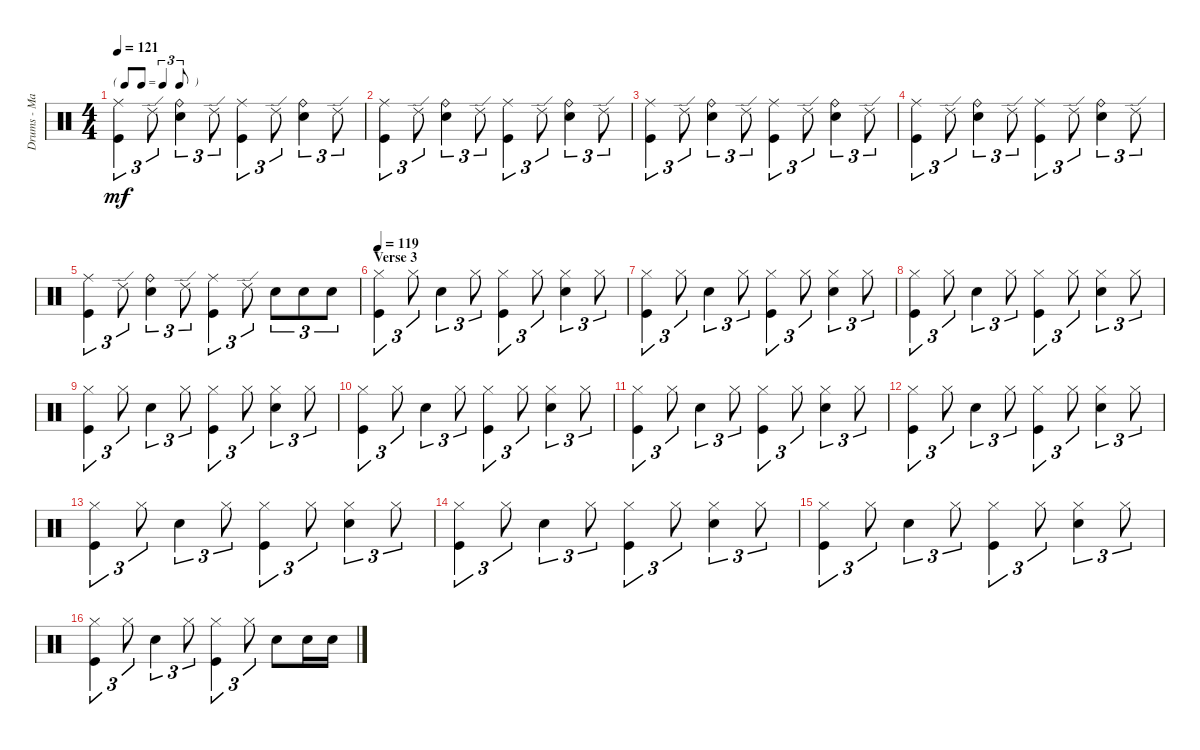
\track ("Drums - Mason" "Drums - Ma") {instrument percussion}
\staff {score}
\articulation defaults
\ts (4 4)
\tf triplet8th
\tempo 121
\clef neutral
\ks c
("Ride (middle)" "Kick (hit)").4{tu (3 2) dy mf} "Ride (edge) 2".8{tu (3 2)} ("Ride (bell)" "Snare (hit) 2").4{tu (3 2)} "Ride (edge) 2".8{tu (3 2)} ("Ride (middle)" "Kick (hit)").4{tu (3 2)} "Ride (edge) 2".8{tu (3 2)} ("Ride (bell)" "Snare (hit) 2").4{tu (3 2)} "Ride (edge) 2".8{tu (3 2)} |
("Ride (middle)" "Kick (hit)").4{tu (3 2)} "Ride (edge) 2".8{tu (3 2)} ("Ride (bell)" "Snare (hit) 2").4{tu (3 2)} "Ride (edge) 2".8{tu (3 2)} ("Ride (middle)" "Kick (hit)").4{tu (3 2)} "Ride (edge) 2".8{tu (3 2)} ("Ride (bell)" "Snare (hit) 2").4{tu (3 2)} "Ride (edge) 2".8{tu (3 2)} |
("Ride (middle)" "Kick (hit)").4{tu (3 2)} "Ride (edge) 2".8{tu (3 2)} ("Ride (bell)" "Snare (hit) 2").4{tu (3 2)} "Ride (edge) 2".8{tu (3 2)} ("Ride (middle)" "Kick (hit)").4{tu (3 2)} "Ride (edge) 2".8{tu (3 2)} ("Ride (bell)" "Snare (hit) 2").4{tu (3 2)} "Ride (edge) 2".8{tu (3 2)} |
("Ride (middle)" "Kick (hit)").4{tu (3 2)} "Ride (edge) 2".8{tu (3 2)} ("Ride (bell)" "Snare (hit) 2").4{tu (3 2)} "Ride (edge) 2".8{tu (3 2)} ("Ride (middle)" "Kick (hit)").4{tu (3 2)} "Ride (edge) 2".8{tu (3 2)} ("Ride (bell)" "Snare (hit) 2").4{tu (3 2)} "Ride (edge) 2".8{tu (3 2)} |
("Ride (middle)" "Kick (hit)").4{tu (3 2)} "Ride (edge) 2".8{tu (3 2)} ("Ride (bell)" "Snare (hit) 2").4{tu (3 2)} "Ride (edge) 2".8{tu (3 2)} ("Ride (middle)" "Kick (hit)").4{tu (3 2)} "Ride (edge) 2".8{tu (3 2)} "Snare (hit) 2".8{tu (3 2)} "Snare (hit) 2".8{tu (3 2)} "Snare (hit) 2".8{tu (3 2)} |
\section ("" "Verse 3")
\tempo 119
("Hi-Hat (closed)" "Kick (hit)").4{tu (3 2)} "Hi-Hat (closed)".8{tu (3 2)} "Snare (hit) 2".4{tu (3 2)} "Hi-Hat (closed)".8{tu (3 2)} ("Hi-Hat (closed)" "Kick (hit)").4{tu (3 2)} "Hi-Hat (closed)".8{tu (3 2)} ("Hi-Hat (closed)" "Snare (hit) 2").4{tu (3 2)} "Hi-Hat (closed)".8{tu (3 2)} |
("Hi-Hat (closed)" "Kick (hit)").4{tu (3 2)} "Hi-Hat (closed)".8{tu (3 2)} "Snare (hit) 2".4{tu (3 2)} "Hi-Hat (closed)".8{tu (3 2)} ("Hi-Hat (closed)" "Kick (hit)").4{tu (3 2)} "Hi-Hat (closed)".8{tu (3 2)} ("Hi-Hat (closed)" "Snare (hit) 2").4{tu (3 2)} "Hi-Hat (closed)".8{tu (3 2)} |
("Hi-Hat (closed)" "Kick (hit)").4{tu (3 2)} "Hi-Hat (closed)".8{tu (3 2)} "Snare (hit) 2".4{tu (3 2)} "Hi-Hat (closed)".8{tu (3 2)} ("Hi-Hat (closed)" "Kick (hit)").4{tu (3 2)} "Hi-Hat (closed)".8{tu (3 2)} ("Hi-Hat (closed)" "Snare (hit) 2").4{tu (3 2)} "Hi-Hat (closed)".8{tu (3 2)} |
("Hi-Hat (closed)" "Kick (hit)").4{tu (3 2)} "Hi-Hat (closed)".8{tu (3 2)} "Snare (hit) 2".4{tu (3 2)} "Hi-Hat (closed)".8{tu (3 2)} ("Hi-Hat (closed)" "Kick (hit)").4{tu (3 2)} "Hi-Hat (closed)".8{tu (3 2)} ("Hi-Hat (closed)" "Snare (hit) 2").4{tu (3 2)} "Hi-Hat (closed)".8{tu (3 2)} |
("Hi-Hat (closed)" "Kick (hit)").4{tu (3 2)} "Hi-Hat (closed)".8{tu (3 2)} "Snare (hit) 2".4{tu (3 2)} "Hi-Hat (closed)".8{tu (3 2)} ("Hi-Hat (closed)" "Kick (hit)").4{tu (3 2)} "Hi-Hat (closed)".8{tu (3 2)} ("Hi-Hat (closed)" "Snare (hit) 2").4{tu (3 2)} "Hi-Hat (closed)".8{tu (3 2)} |
("Hi-Hat (closed)" "Kick (hit)").4{tu (3 2)} "Hi-Hat (closed)".8{tu (3 2)} "Snare (hit) 2".4{tu (3 2)} "Hi-Hat (closed)".8{tu (3 2)} ("Hi-Hat (closed)" "Kick (hit)").4{tu (3 2)} "Hi-Hat (closed)".8{tu (3 2)} ("Hi-Hat (closed)" "Snare (hit) 2").4{tu (3 2)} "Hi-Hat (closed)".8{tu (3 2)} |
("Hi-Hat (closed)" "Kick (hit)").4{tu (3 2)} "Hi-Hat (closed)".8{tu (3 2)} "Snare (hit) 2".4{tu (3 2)} "Hi-Hat (closed)".8{tu (3 2)} ("Hi-Hat (closed)" "Kick (hit)").4{tu (3 2)} "Hi-Hat (closed)".8{tu (3 2)} ("Hi-Hat (closed)" "Snare (hit) 2").4{tu (3 2)} "Hi-Hat (closed)".8{tu (3 2)} |
("Hi-Hat (closed)" "Kick (hit)").4{tu (3 2)} "Hi-Hat (closed)".8{tu (3 2)} "Snare (hit) 2".4{tu (3 2)} "Hi-Hat (closed)".8{tu (3 2)} ("Hi-Hat (closed)" "Kick (hit)").4{tu (3 2)} "Hi-Hat (closed)".8{tu (3 2)} ("Hi-Hat (closed)" "Snare (hit) 2").4{tu (3 2)} "Hi-Hat (closed)".8{tu (3 2)} |
("Hi-Hat (closed)" "Kick (hit)").4{tu (3 2)} "Hi-Hat (closed)".8{tu (3 2)} "Snare (hit) 2".4{tu (3 2)} "Hi-Hat (closed)".8{tu (3 2)} ("Hi-Hat (closed)" "Kick (hit)").4{tu (3 2)} "Hi-Hat (closed)".8{tu (3 2)} ("Hi-Hat (closed)" "Snare (hit) 2").4{tu (3 2)} "Hi-Hat (closed)".8{tu (3 2)} |
("Hi-Hat (closed)" "Kick (hit)").4{tu (3 2)} "Hi-Hat (closed)".8{tu (3 2)} "Snare (hit) 2".4{tu (3 2)} "Hi-Hat (closed)".8{tu (3 2)} ("Hi-Hat (closed)" "Kick (hit)").4{tu (3 2)} "Hi-Hat (closed)".8{tu (3 2)} ("Hi-Hat (closed)" "Snare (hit) 2").4{tu (3 2)} "Hi-Hat (closed)".8{tu (3 2)} |
("Hi-Hat (closed)" "Kick (hit)").4{tu (3 2)} "Hi-Hat (closed)".8{tu (3 2)} "Snare (hit) 2".4{tu (3 2)} "Hi-Hat (closed)".8{tu (3 2)} ("Hi-Hat (closed)" "Kick (hit)").4{tu (3 2)} "Hi-Hat (closed)".8{tu (3 2)} "Snare (hit) 2".8 "Snare (hit) 2".16 "Snare (hit) 2".16
